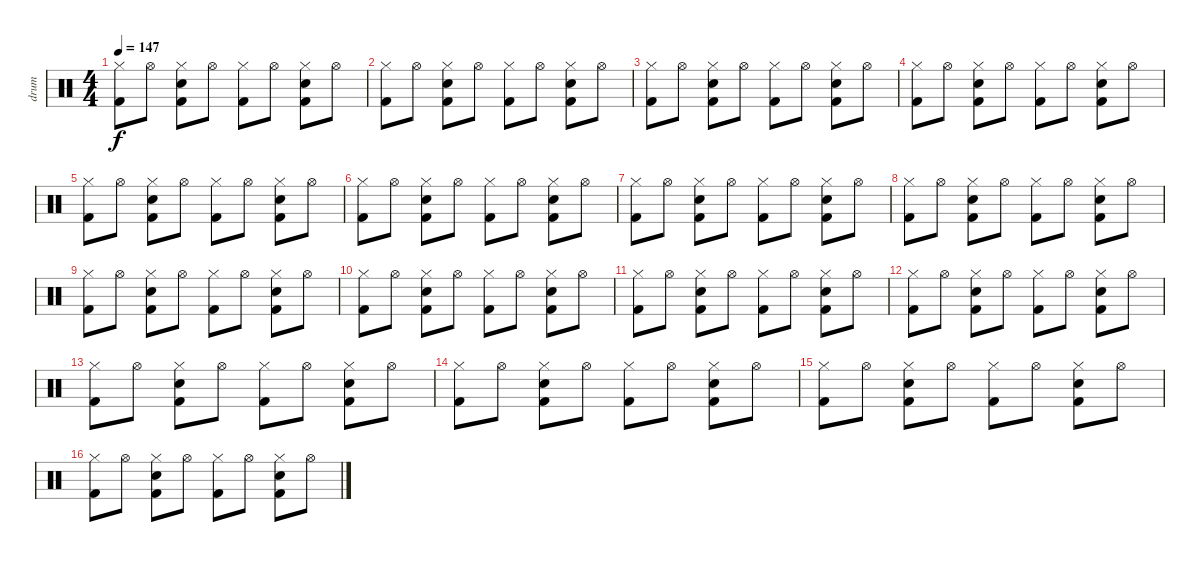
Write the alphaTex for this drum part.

\track ("drum" "drum") {instrument percussion}
\staff {score}
\articulation defaults
\ts (4 4)
\tempo 147
\clef neutral
\ks c
("Hi-Hat (closed)" "Kick (hit) 2").8{dy f} "Hi-Hat (open)".8 ("Hi-Hat (closed)" "Electric Snare (hit)" "Kick (hit) 2").8 "Hi-Hat (open)".8 ("Hi-Hat (closed)" "Kick (hit) 2").8 "Hi-Hat (open)".8 ("Hi-Hat (closed)" "Electric Snare (hit)" "Kick (hit) 2").8 "Hi-Hat (open)".8 |
("Hi-Hat (closed)" "Kick (hit) 2").8 "Hi-Hat (open)".8 ("Hi-Hat (closed)" "Electric Snare (hit)" "Kick (hit) 2").8 "Hi-Hat (open)".8 ("Hi-Hat (closed)" "Kick (hit) 2").8 "Hi-Hat (open)".8 ("Hi-Hat (closed)" "Electric Snare (hit)" "Kick (hit) 2").8 "Hi-Hat (open)".8 |
("Hi-Hat (closed)" "Kick (hit) 2").8 "Hi-Hat (open)".8 ("Hi-Hat (closed)" "Electric Snare (hit)" "Kick (hit) 2").8 "Hi-Hat (open)".8 ("Hi-Hat (closed)" "Kick (hit) 2").8 "Hi-Hat (open)".8 ("Hi-Hat (closed)" "Electric Snare (hit)" "Kick (hit) 2").8 "Hi-Hat (open)".8 |
("Hi-Hat (closed)" "Kick (hit) 2").8 "Hi-Hat (open)".8 ("Hi-Hat (closed)" "Electric Snare (hit)" "Kick (hit) 2").8 "Hi-Hat (open)".8 ("Hi-Hat (closed)" "Kick (hit) 2").8 "Hi-Hat (open)".8 ("Hi-Hat (closed)" "Electric Snare (hit)" "Kick (hit) 2").8 "Hi-Hat (open)".8 |
("Hi-Hat (closed)" "Kick (hit) 2").8 "Hi-Hat (open)".8 ("Hi-Hat (closed)" "Electric Snare (hit)" "Kick (hit) 2").8 "Hi-Hat (open)".8 ("Hi-Hat (closed)" "Kick (hit) 2").8 "Hi-Hat (open)".8 ("Hi-Hat (closed)" "Electric Snare (hit)" "Kick (hit) 2").8 "Hi-Hat (open)".8 |
("Hi-Hat (closed)" "Kick (hit) 2").8 "Hi-Hat (open)".8 ("Hi-Hat (closed)" "Electric Snare (hit)" "Kick (hit) 2").8 "Hi-Hat (open)".8 ("Hi-Hat (closed)" "Kick (hit) 2").8 "Hi-Hat (open)".8 ("Hi-Hat (closed)" "Electric Snare (hit)" "Kick (hit) 2").8 "Hi-Hat (open)".8 |
("Hi-Hat (closed)" "Kick (hit) 2").8 "Hi-Hat (open)".8 ("Hi-Hat (closed)" "Electric Snare (hit)" "Kick (hit) 2").8 "Hi-Hat (open)".8 ("Hi-Hat (closed)" "Kick (hit) 2").8 "Hi-Hat (open)".8 ("Hi-Hat (closed)" "Electric Snare (hit)" "Kick (hit) 2").8 "Hi-Hat (open)".8 |
("Hi-Hat (closed)" "Kick (hit) 2").8 "Hi-Hat (open)".8 ("Hi-Hat (closed)" "Electric Snare (hit)" "Kick (hit) 2").8 "Hi-Hat (open)".8 ("Hi-Hat (closed)" "Kick (hit) 2").8 "Hi-Hat (open)".8 ("Hi-Hat (closed)" "Electric Snare (hit)" "Kick (hit) 2").8 "Hi-Hat (open)".8 |
("Hi-Hat (closed)" "Kick (hit) 2").8 "Hi-Hat (open)".8 ("Hi-Hat (closed)" "Electric Snare (hit)" "Kick (hit) 2").8 "Hi-Hat (open)".8 ("Hi-Hat (closed)" "Kick (hit) 2").8 "Hi-Hat (open)".8 ("Hi-Hat (closed)" "Electric Snare (hit)" "Kick (hit) 2").8 "Hi-Hat (open)".8 |
("Hi-Hat (closed)" "Kick (hit) 2").8 "Hi-Hat (open)".8 ("Hi-Hat (closed)" "Electric Snare (hit)" "Kick (hit) 2").8 "Hi-Hat (open)".8 ("Hi-Hat (closed)" "Kick (hit) 2").8 "Hi-Hat (open)".8 ("Hi-Hat (closed)" "Electric Snare (hit)" "Kick (hit) 2").8 "Hi-Hat (open)".8 |
("Hi-Hat (closed)" "Kick (hit) 2").8 "Hi-Hat (open)".8 ("Hi-Hat (closed)" "Electric Snare (hit)" "Kick (hit) 2").8 "Hi-Hat (open)".8 ("Hi-Hat (closed)" "Kick (hit) 2").8 "Hi-Hat (open)".8 ("Hi-Hat (closed)" "Electric Snare (hit)" "Kick (hit) 2").8 "Hi-Hat (open)".8 |
("Hi-Hat (closed)" "Kick (hit) 2").8 "Hi-Hat (open)".8 ("Hi-Hat (closed)" "Electric Snare (hit)" "Kick (hit) 2").8 "Hi-Hat (open)".8 ("Hi-Hat (closed)" "Kick (hit) 2").8 "Hi-Hat (open)".8 ("Hi-Hat (closed)" "Electric Snare (hit)" "Kick (hit) 2").8 "Hi-Hat (open)".8 |
("Hi-Hat (closed)" "Kick (hit) 2").8 "Hi-Hat (open)".8 ("Hi-Hat (closed)" "Electric Snare (hit)" "Kick (hit) 2").8 "Hi-Hat (open)".8 ("Hi-Hat (closed)" "Kick (hit) 2").8 "Hi-Hat (open)".8 ("Hi-Hat (closed)" "Electric Snare (hit)" "Kick (hit) 2").8 "Hi-Hat (open)".8 |
("Hi-Hat (closed)" "Kick (hit) 2").8 "Hi-Hat (open)".8 ("Hi-Hat (closed)" "Electric Snare (hit)" "Kick (hit) 2").8 "Hi-Hat (open)".8 ("Hi-Hat (closed)" "Kick (hit) 2").8 "Hi-Hat (open)".8 ("Hi-Hat (closed)" "Electric Snare (hit)" "Kick (hit) 2").8 "Hi-Hat (open)".8 |
("Hi-Hat (closed)" "Kick (hit) 2").8 "Hi-Hat (open)".8 ("Hi-Hat (closed)" "Electric Snare (hit)" "Kick (hit) 2").8 "Hi-Hat (open)".8 ("Hi-Hat (closed)" "Kick (hit) 2").8 "Hi-Hat (open)".8 ("Hi-Hat (closed)" "Electric Snare (hit)" "Kick (hit) 2").8 "Hi-Hat (open)".8 |
("Hi-Hat (closed)" "Kick (hit) 2").8 "Hi-Hat (open)".8 ("Hi-Hat (closed)" "Electric Snare (hit)" "Kick (hit) 2").8 "Hi-Hat (open)".8 ("Hi-Hat (closed)" "Kick (hit) 2").8 "Hi-Hat (open)".8 ("Hi-Hat (closed)" "Electric Snare (hit)" "Kick (hit) 2").8 "Hi-Hat (open)".8
